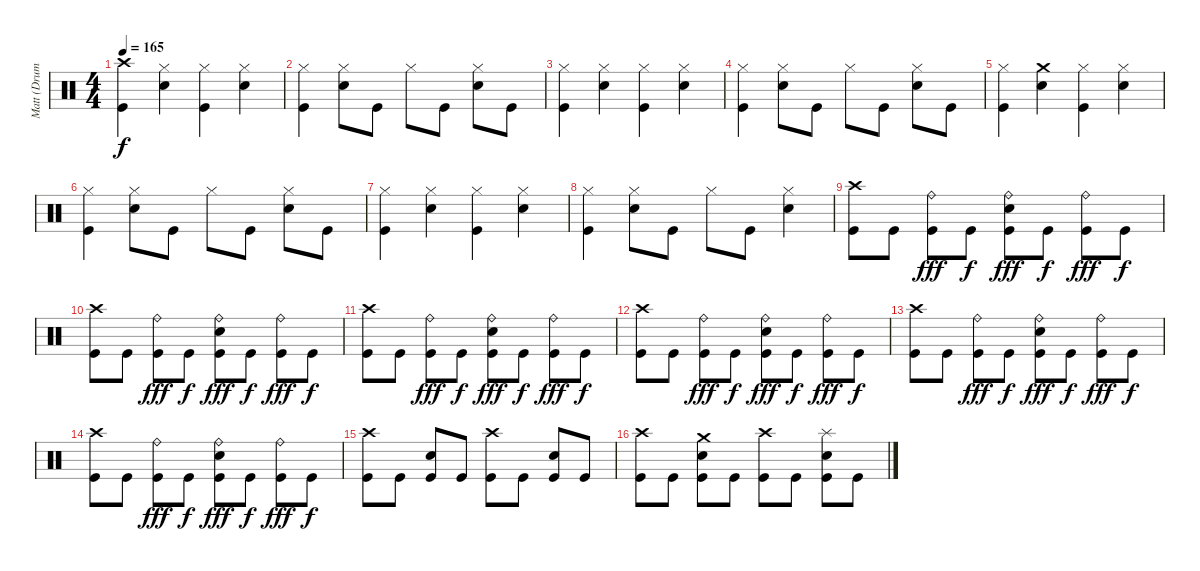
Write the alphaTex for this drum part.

\track ("Matt (Drums)" "Matt (Drum") {instrument percussion}
\staff {score}
\articulation defaults
\ts (4 4)
\tempo 165
\clef neutral
\ks c
("Crash high (hit)" "Kick (hit)").4{dy f} ("Hi-Hat (closed)" "Electric Snare (hit)").4 ("Hi-Hat (closed)" "Kick (hit)").4 ("Hi-Hat (closed)" "Electric Snare (hit)").4 |
("Hi-Hat (closed)" "Kick (hit)").4 ("Hi-Hat (closed)" "Electric Snare (hit)").8 "Kick (hit)".8 "Hi-Hat (closed)".8 "Kick (hit)".8 ("Hi-Hat (closed)" "Electric Snare (hit)").8 "Kick (hit)".8 |
("Hi-Hat (closed)" "Kick (hit)").4 ("Hi-Hat (closed)" "Electric Snare (hit)").4 ("Hi-Hat (closed)" "Kick (hit)").4 ("Hi-Hat (closed)" "Electric Snare (hit)").4 |
("Hi-Hat (closed)" "Kick (hit)").4 ("Hi-Hat (closed)" "Electric Snare (hit)").8 "Kick (hit)".8 "Hi-Hat (closed)".8 "Kick (hit)".8 ("Hi-Hat (closed)" "Electric Snare (hit)").8 "Kick (hit)".8 |
("Hi-Hat (closed)" "Kick (hit)").4 ("Crash medium (hit)" "Electric Snare (hit)").4 ("Hi-Hat (closed)" "Kick (hit)").4 ("Hi-Hat (closed)" "Electric Snare (hit)").4 |
("Hi-Hat (closed)" "Kick (hit)").4 ("Hi-Hat (closed)" "Electric Snare (hit)").8 "Kick (hit)".8 "Hi-Hat (closed)".8 "Kick (hit)".8 ("Hi-Hat (closed)" "Electric Snare (hit)").8 "Kick (hit)".8 |
("Hi-Hat (closed)" "Kick (hit)").4 ("Hi-Hat (closed)" "Electric Snare (hit)").4 ("Hi-Hat (closed)" "Kick (hit)").4 ("Hi-Hat (closed)" "Electric Snare (hit)").4 |
("Hi-Hat (closed)" "Kick (hit)").4 ("Hi-Hat (closed)" "Electric Snare (hit)").8 "Kick (hit)".8 "Hi-Hat (closed)".8 "Kick (hit)".8 ("Hi-Hat (closed)" "Electric Snare (hit)").4 |
("Crash high (hit)" "Kick (hit)").8 "Kick (hit)".8 ("Ride (bell)" "Kick (hit)").8{dy fff} "Kick (hit)".8{dy f} ("Ride (bell)" "Electric Snare (hit)" "Kick (hit)").8{dy fff} "Kick (hit)".8{dy f} ("Ride (bell)" "Kick (hit)").8{dy fff} "Kick (hit)".8{dy f} |
("Crash high (hit)" "Kick (hit)").8 "Kick (hit)".8 ("Ride (bell)" "Kick (hit)").8{dy fff} "Kick (hit)".8{dy f} ("Ride (bell)" "Electric Snare (hit)" "Kick (hit)").8{dy fff} "Kick (hit)".8{dy f} ("Ride (bell)" "Kick (hit)").8{dy fff} "Kick (hit)".8{dy f} |
("Crash high (hit)" "Kick (hit)").8 "Kick (hit)".8 ("Ride (bell)" "Kick (hit)").8{dy fff} "Kick (hit)".8{dy f} ("Ride (bell)" "Electric Snare (hit)" "Kick (hit)").8{dy fff} "Kick (hit)".8{dy f} ("Ride (bell)" "Kick (hit)").8{dy fff} "Kick (hit)".8{dy f} |
("Crash high (hit)" "Kick (hit)").8 "Kick (hit)".8 ("Ride (bell)" "Kick (hit)").8{dy fff} "Kick (hit)".8{dy f} ("Ride (bell)" "Electric Snare (hit)" "Kick (hit)").8{dy fff} "Kick (hit)".8{dy f} ("Ride (bell)" "Kick (hit)").8{dy fff} "Kick (hit)".8{dy f} |
("Crash high (hit)" "Kick (hit)").8 "Kick (hit)".8 ("Ride (bell)" "Kick (hit)").8{dy fff} "Kick (hit)".8{dy f} ("Ride (bell)" "Electric Snare (hit)" "Kick (hit)").8{dy fff} "Kick (hit)".8{dy f} ("Ride (bell)" "Kick (hit)").8{dy fff} "Kick (hit)".8{dy f} |
("Crash high (hit)" "Kick (hit)").8 "Kick (hit)".8 ("Ride (bell)" "Kick (hit)").8{dy fff} "Kick (hit)".8{dy f} ("Ride (bell)" "Electric Snare (hit)" "Kick (hit)").8{dy fff} "Kick (hit)".8{dy f} ("Ride (bell)" "Kick (hit)").8{dy fff} "Kick (hit)".8{dy f} |
("Crash high (hit)" "Kick (hit)").8 "Kick (hit)".8 ("Electric Snare (hit)" "Kick (hit)").8 "Kick (hit)".8 ("Crash high (hit)" "Kick (hit)").8 "Kick (hit)".8 ("Electric Snare (hit)" "Kick (hit)").8 "Kick (hit)".8 |
("Crash high (hit)" "Kick (hit)").8 "Kick (hit)".8 ("Crash medium (hit)" "Electric Snare (hit)" "Kick (hit)").8 "Kick (hit)".8 ("Crash high (hit)" "Kick (hit)").8 "Kick (hit)".8 ("Splash (hit)" "Electric Snare (hit)" "Kick (hit)").8 "Kick (hit)".8
